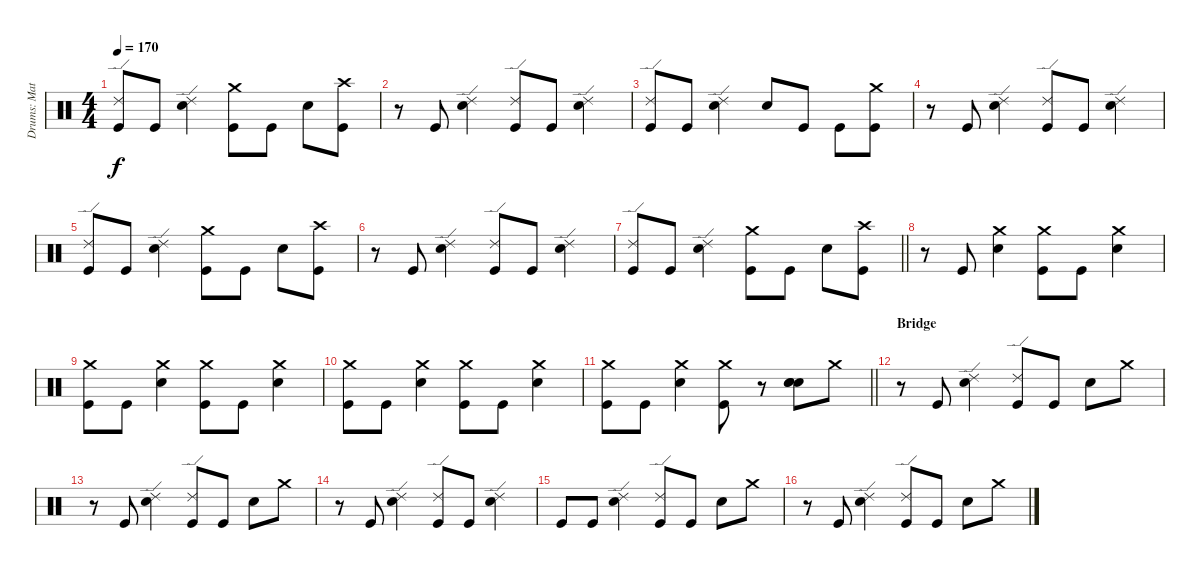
\track ("Drums: Matt" "Drums: Mat") {instrument percussion}
\staff {score}
\articulation defaults
\ts (4 4)
\tempo 170
\clef neutral
\ks c
("Ride (edge) 2" "Kick (hit)").8{dy f} "Kick (hit)".8 ("Snare (hit) 2" "Ride (edge) 2").4 ("Kick (hit)" "Crash medium (hit)").8 "Kick (hit)".8 "Snare (hit) 2".8 ("Kick (hit)" "Crash high (hit)").8 |
r.8 "Kick (hit)".8 ("Ride (edge) 2" "Snare (hit) 2").4 ("Kick (hit)" "Ride (edge) 2").8 "Kick (hit)".8 ("Snare (hit) 2" "Ride (edge) 2").4 |
("Ride (edge) 2" "Kick (hit)").8 "Kick (hit)".8 ("Snare (hit) 2" "Ride (edge) 2").4 "Snare (hit) 2".8 "Kick (hit)".8 "Kick (hit)".8 ("Crash medium (hit)" "Kick (hit)").8 |
r.8 "Kick (hit)".8 ("Ride (edge) 2" "Snare (hit) 2").4 ("Kick (hit)" "Ride (edge) 2").8 "Kick (hit)".8 ("Snare (hit) 2" "Ride (edge) 2").4 |
("Ride (edge) 2" "Kick (hit)").8 "Kick (hit)".8 ("Snare (hit) 2" "Ride (edge) 2").4 ("Crash medium (hit)" "Kick (hit)").8 "Kick (hit)".8 "Snare (hit) 2".8 ("Kick (hit)" "Crash high (hit)").8 |
r.8 "Kick (hit)".8 ("Snare (hit) 2" "Ride (edge) 2").4 ("Kick (hit)" "Ride (edge) 2").8 "Kick (hit)".8 ("Ride (edge) 2" "Snare (hit) 2").4 |
\barLineRight lightlight
("Kick (hit)" "Ride (edge) 2").8 "Kick (hit)".8 ("Ride (edge) 2" "Snare (hit) 2").4 ("Crash medium (hit)" "Kick (hit)").8 "Kick (hit)".8 "Snare (hit) 2".8 ("Kick (hit)" "Crash high (hit)").8 |
r.8 "Kick (hit)".8 ("Snare (hit) 2" "Crash medium (hit)").4 ("Kick (hit)" "Crash medium (hit)").8 "Kick (hit)".8 ("Crash medium (hit)" "Snare (hit) 2").4 |
("Crash medium (hit)" "Kick (hit)").8 "Kick (hit)".8 ("Snare (hit) 2" "Crash medium (hit)").4 ("Crash medium (hit)" "Kick (hit)").8 "Kick (hit)".8 ("Crash medium (hit)" "Snare (hit) 2").4 |
("Crash medium (hit)" "Kick (hit)").8 "Kick (hit)".8 ("Snare (hit) 2" "Crash medium (hit)").4 ("Kick (hit)" "Crash medium (hit)").8 "Kick (hit)".8 ("Snare (hit) 2" "Crash medium (hit)").4 |
\barLineRight lightlight
("Kick (hit)" "Crash medium (hit)").8 "Kick (hit)".8 ("Snare (hit) 2" "Crash medium (hit)").4 ("Crash medium (hit)" "Kick (hit)").8 r.8 ("Snare (hit) 2" "Snare (hit) 2" "Snare (hit) 2").8 "Crash medium (hit)".8 |
\section ("" "Bridge")
r.8 "Kick (hit)".8 ("Snare (hit) 2" "Ride (edge) 2").4 ("Ride (edge) 2" "Kick (hit)").8 "Kick (hit)".8 "Snare (hit) 2".8 "Crash medium (hit)".8 |
r.8 "Kick (hit)".8 ("Ride (edge) 2" "Snare (hit) 2").4 ("Ride (edge) 2" "Kick (hit)").8 "Kick (hit)".8 "Snare (hit) 2".8 "Crash medium (hit)".8 |
r.8 "Kick (hit)".8 ("Ride (edge) 2" "Snare (hit) 2").4 ("Ride (edge) 2" "Kick (hit)").8 "Kick (hit)".8 ("Snare (hit) 2" "Ride (edge) 2").4 |
"Kick (hit)".8 "Kick (hit)".8 ("Ride (edge) 2" "Snare (hit) 2").4 ("Ride (edge) 2" "Kick (hit)").8 "Kick (hit)".8 "Snare (hit) 2".8 "Crash medium (hit)".8 |
r.8 "Kick (hit)".8 ("Snare (hit) 2" "Ride (edge) 2").4 ("Kick (hit)" "Ride (edge) 2").8 "Kick (hit)".8 "Snare (hit) 2".8 "Crash medium (hit)".8
